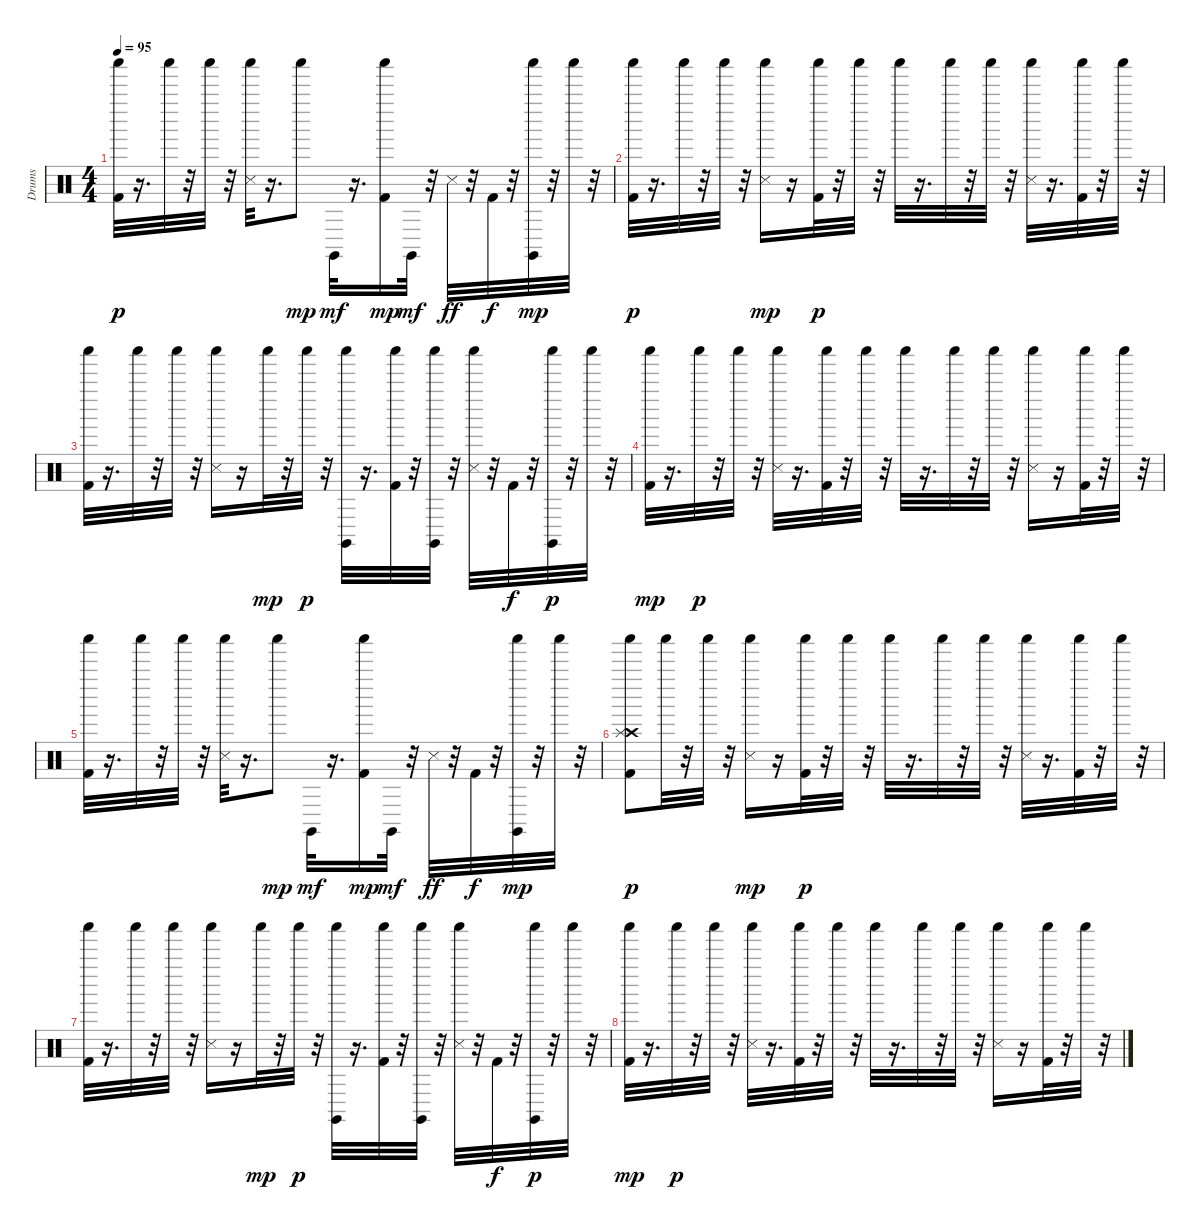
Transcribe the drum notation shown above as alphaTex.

\track ("Drums" "Drums") {instrument percussion}
\staff {score}
\articulation defaults
\ts (4 4)
\tempo 95
\clef neutral
\ks c
("Kick (hit) 2" "Shaker (hit)").32{dy p} r.16{d} "Shaker (hit)".32 r.32 "Shaker (hit)".32 r.32 ("Snare (side stick) 3" "Shaker (hit)").32 r.16{d} "Shaker (hit)".8{dy mp} "Claves (hit)".32{dy mf} r.16{d} ("Kick (hit) 2" "Shaker (hit)").16{dy mp} "Claves (hit)".32{dy mf} r.32 "Snare (side stick) 3".32{dy ff} r.32 "Kick (hit) 2".32{dy f} r.32 ("Claves (hit)" "Shaker (hit)").32{dy mp} r.32 "Shaker (hit)".32 r.32 |
("Kick (hit) 2" "Shaker (hit)").32{dy p} r.16{d} "Shaker (hit)".32 r.32 "Shaker (hit)".32 r.32 ("Snare (side stick) 3" "Shaker (hit)").16{dy mp} r.16 ("Kick (hit) 2" "Shaker (hit)").32{dy p} r.32 "Shaker (hit)".32 r.32 "Shaker (hit)".32 r.16{d} "Shaker (hit)".32 r.32 "Shaker (hit)".32 r.32 ("Snare (side stick) 3" "Shaker (hit)").32 r.16{d} ("Kick (hit) 2" "Shaker (hit)").32 r.32 "Shaker (hit)".32 r.32 |
("Kick (hit) 2" "Shaker (hit)").32 r.16{d} "Shaker (hit)".32 r.32 "Shaker (hit)".32 r.32 ("Snare (side stick) 3" "Shaker (hit)").16 r.16 "Shaker (hit)".32{dy mp} r.32 "Shaker (hit)".32{dy p} r.32 ("Claves (hit)" "Shaker (hit)").32 r.16{d} ("Kick (hit) 2" "Shaker (hit)").32 r.32 ("Claves (hit)" "Shaker (hit)").32 r.32 ("Snare (side stick) 3" "Shaker (hit)").32 r.32 "Kick (hit) 2".32{dy f} r.32 ("Claves (hit)" "Shaker (hit)").32{dy p} r.32 "Shaker (hit)".32 r.32 |
("Kick (hit) 2" "Shaker (hit)").32{dy mp} r.16{d} "Shaker (hit)".32{dy p} r.32 "Shaker (hit)".32 r.32 ("Snare (side stick) 3" "Shaker (hit)").32 r.16{d} ("Kick (hit) 2" "Shaker (hit)").32 r.32 "Shaker (hit)".32 r.32 "Shaker (hit)".32 r.16{d} "Shaker (hit)".32 r.32 "Shaker (hit)".32 r.32 ("Snare (side stick) 3" "Shaker (hit)").16 r.16 ("Kick (hit) 2" "Shaker (hit)").32 r.32 "Shaker (hit)".32 r.32 |
("Kick (hit) 2" "Shaker (hit)").32 r.16{d} "Shaker (hit)".32 r.32 "Shaker (hit)".32 r.32 ("Snare (side stick) 3" "Shaker (hit)").32 r.16{d} "Shaker (hit)".8{dy mp} "Claves (hit)".32{dy mf} r.16{d} ("Kick (hit) 2" "Shaker (hit)").16{dy mp} "Claves (hit)".32{dy mf} r.32 "Snare (side stick) 3".32{dy ff} r.32 "Kick (hit) 2".32{dy f} r.32 ("Claves (hit)" "Shaker (hit)").32{dy mp} r.32 "Shaker (hit)".32 r.32 |
("Kick (hit) 2" "Crash high (hit)" "Splash (hit)" "Shaker (hit)").8{dy p} "Shaker (hit)".32 r.32 "Shaker (hit)".32 r.32 ("Snare (side stick) 3" "Shaker (hit)").16{dy mp} r.16 ("Kick (hit) 2" "Shaker (hit)").32{dy p} r.32 "Shaker (hit)".32 r.32 "Shaker (hit)".32 r.16{d} "Shaker (hit)".32 r.32 "Shaker (hit)".32 r.32 ("Snare (side stick) 3" "Shaker (hit)").32 r.16{d} ("Kick (hit) 2" "Shaker (hit)").32 r.32 "Shaker (hit)".32 r.32 |
("Kick (hit) 2" "Shaker (hit)").32 r.16{d} "Shaker (hit)".32 r.32 "Shaker (hit)".32 r.32 ("Snare (side stick) 3" "Shaker (hit)").16 r.16 "Shaker (hit)".32{dy mp} r.32 "Shaker (hit)".32{dy p} r.32 ("Claves (hit)" "Shaker (hit)").32 r.16{d} ("Kick (hit) 2" "Shaker (hit)").32 r.32 ("Claves (hit)" "Shaker (hit)").32 r.32 ("Snare (side stick) 3" "Shaker (hit)").32 r.32 "Kick (hit) 2".32{dy f} r.32 ("Claves (hit)" "Shaker (hit)").32{dy p} r.32 "Shaker (hit)".32 r.32 |
("Kick (hit) 2" "Shaker (hit)").32{dy mp} r.16{d} "Shaker (hit)".32{dy p} r.32 "Shaker (hit)".32 r.32 ("Snare (side stick) 3" "Shaker (hit)").32 r.16{d} ("Kick (hit) 2" "Shaker (hit)").32 r.32 "Shaker (hit)".32 r.32 "Shaker (hit)".32 r.16{d} "Shaker (hit)".32 r.32 "Shaker (hit)".32 r.32 ("Snare (side stick) 3" "Shaker (hit)").16 r.16 ("Kick (hit) 2" "Shaker (hit)").32 r.32 "Shaker (hit)".32 r.32
